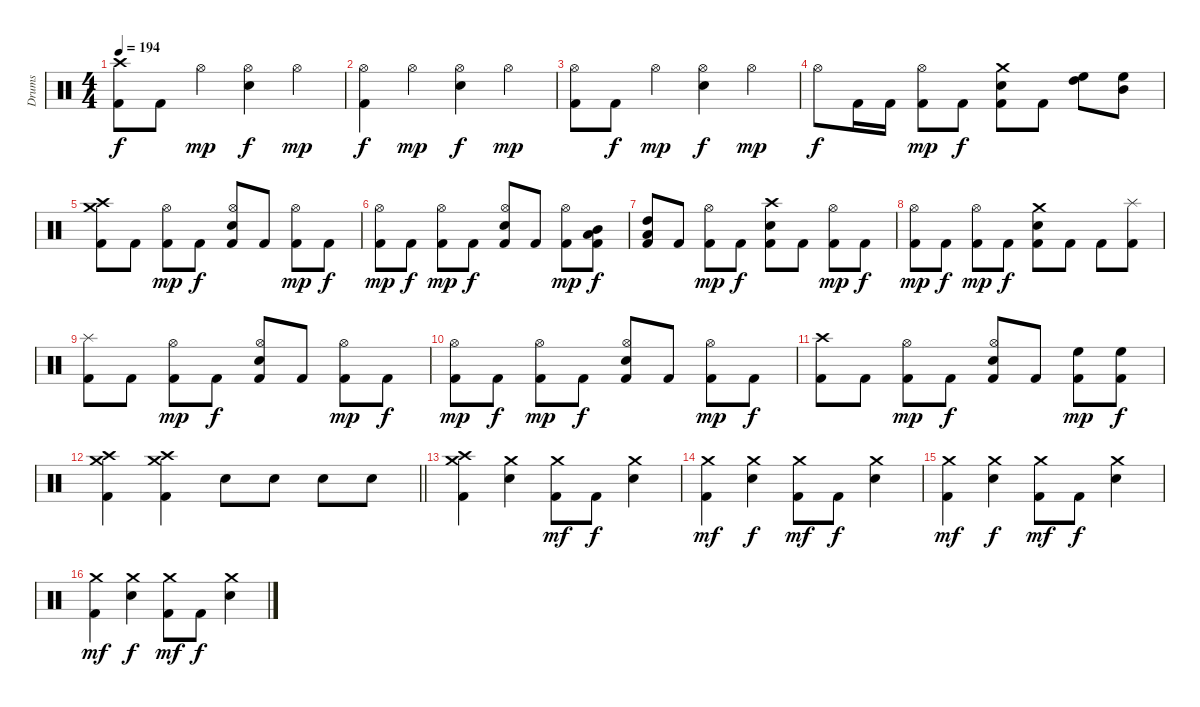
\track ("Drums" "Drums") {instrument percussion}
\staff {score}
\articulation defaults
\ts (4 4)
\tempo 194
\clef neutral
\ks c
("Crash high (hit)" "Kick (hit) 2").8{dy f} "Kick (hit) 2".8 "Hi-Hat (open)".4{dy mp} ("Hi-Hat (open)" "Electric Snare (hit)").4{dy f} "Hi-Hat (open)".4{dy mp} |
("Hi-Hat (open)" "Kick (hit) 2").4{dy f} "Hi-Hat (open)".4{dy mp} ("Hi-Hat (open)" "Electric Snare (hit)").4{dy f} "Hi-Hat (open)".4{dy mp} |
("Hi-Hat (open)" "Kick (hit) 2").8 "Kick (hit) 2".8{dy f} "Hi-Hat (open)".4{dy mp} ("Hi-Hat (open)" "Electric Snare (hit)").4{dy f} "Hi-Hat (open)".4{dy mp} |
"Hi-Hat (open)".8{dy f} "Kick (hit) 2".16 "Kick (hit) 2".16 ("Hi-Hat (open)" "Kick (hit) 2").8{dy mp} "Kick (hit) 2".8{dy f} ("Crash medium (hit)" "Electric Snare (hit)" "Kick (hit) 2").8 "Kick (hit) 2".8 ("High Floor Tom (hit)" "High Tom (hit)").8 ("High Floor Tom (hit)" "Mid Tom (hit)").8 |
("Crash high (hit)" "Crash medium (hit)" "Kick (hit) 2").8 "Kick (hit) 2".8 ("Hi-Hat (open)" "Kick (hit) 2").8{dy mp} "Kick (hit) 2".8{dy f} ("Hi-Hat (open)" "Electric Snare (hit)" "Kick (hit) 2").8 "Kick (hit) 2".8 ("Hi-Hat (open)" "Kick (hit) 2").8{dy mp} "Kick (hit) 2".8{dy f} |
("Hi-Hat (open)" "Kick (hit) 2").8{dy mp} "Kick (hit) 2".8{dy f} ("Hi-Hat (open)" "Kick (hit) 2").8{dy mp} "Kick (hit) 2".8{dy f} ("Hi-Hat (open)" "Electric Snare (hit)" "Kick (hit) 2").8 "Kick (hit) 2".8 ("Hi-Hat (open)" "Kick (hit) 2").8{dy mp} ("Mid Tom (hit)" "Low Tom (hit)" "Kick (hit) 2").8{dy f} |
("High Tom (hit)" "Low Tom (hit)" "Kick (hit) 2").8 "Kick (hit) 2".8 ("Hi-Hat (open)" "Kick (hit) 2").8{dy mp} "Kick (hit) 2".8{dy f} ("Crash high (hit)" "Electric Snare (hit)" "Kick (hit) 2").8 "Kick (hit) 2".8 ("Hi-Hat (open)" "Kick (hit) 2").8{dy mp} "Kick (hit) 2".8{dy f} |
("Hi-Hat (open)" "Kick (hit) 2").8{dy mp} "Kick (hit) 2".8{dy f} ("Hi-Hat (open)" "Kick (hit) 2").8{dy mp} "Kick (hit) 2".8{dy f} ("Crash medium (hit)" "Electric Snare (hit)" "Kick (hit) 2").8 "Kick (hit) 2".8 "Kick (hit) 2".8 ("Splash (hit)" "Kick (hit) 2").8 |
("Splash (hit)" "Kick (hit) 2").8 "Kick (hit) 2".8 ("Hi-Hat (open)" "Kick (hit) 2").8{dy mp} "Kick (hit) 2".8{dy f} ("Hi-Hat (open)" "Electric Snare (hit)" "Kick (hit) 2").8 "Kick (hit) 2".8 ("Hi-Hat (open)" "Kick (hit) 2").8{dy mp} "Kick (hit) 2".8{dy f} |
("Hi-Hat (open)" "Kick (hit) 2").8{dy mp} "Kick (hit) 2".8{dy f} ("Hi-Hat (open)" "Kick (hit) 2").8{dy mp} "Kick (hit) 2".8{dy f} ("Hi-Hat (open)" "Electric Snare (hit)" "Kick (hit) 2").8 "Kick (hit) 2".8 ("Hi-Hat (open)" "Kick (hit) 2").8{dy mp} "Kick (hit) 2".8{dy f} |
("Crash high (hit)" "Kick (hit) 2").8 "Kick (hit) 2".8 ("Hi-Hat (open)" "Kick (hit) 2").8{dy mp} "Kick (hit) 2".8{dy f} ("Hi-Hat (open)" "Electric Snare (hit)" "Kick (hit) 2").8 "Kick (hit) 2".8 ("High Floor Tom (hit)" "Kick (hit) 2").8{dy mp} ("High Floor Tom (hit)" "Kick (hit) 2").8{dy f} |
\barLineRight lightlight
("Crash high (hit)" "Crash medium (hit)" "Kick (hit) 2").4 ("Crash high (hit)" "Crash medium (hit)" "Kick (hit) 2").4 "Electric Snare (hit)".8 "Electric Snare (hit)".8 "Electric Snare (hit)".8 "Electric Snare (hit)".8 |
("Crash high (hit)" "Crash medium (hit)" "Kick (hit) 2").4 ("Crash medium (hit)" "Electric Snare (hit)").4 ("Crash medium (hit)" "Kick (hit) 2").8{dy mf} "Kick (hit) 2".8{dy f} ("Crash medium (hit)" "Electric Snare (hit)").4 |
("Crash medium (hit)" "Kick (hit) 2").4{dy mf} ("Crash medium (hit)" "Electric Snare (hit)").4{dy f} ("Crash medium (hit)" "Kick (hit) 2").8{dy mf} "Kick (hit) 2".8{dy f} ("Crash medium (hit)" "Electric Snare (hit)").4 |
("Crash medium (hit)" "Kick (hit) 2").4{dy mf} ("Crash medium (hit)" "Electric Snare (hit)").4{dy f} ("Crash medium (hit)" "Kick (hit) 2").8{dy mf} "Kick (hit) 2".8{dy f} ("Crash medium (hit)" "Electric Snare (hit)").4 |
("Crash medium (hit)" "Kick (hit) 2").4{dy mf} ("Crash medium (hit)" "Electric Snare (hit)").4{dy f} ("Crash medium (hit)" "Kick (hit) 2").8{dy mf} "Kick (hit) 2".8{dy f} ("Crash medium (hit)" "Electric Snare (hit)").4
